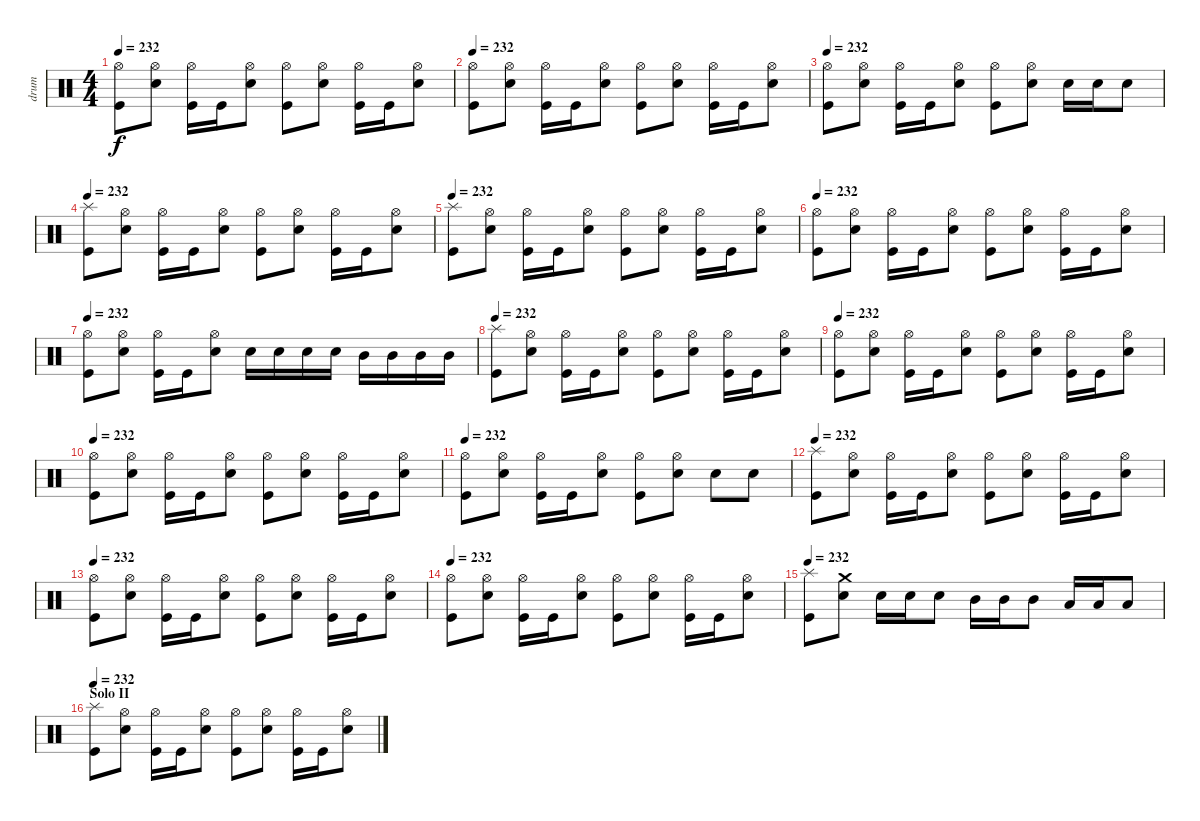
\track ("drum" "drum") {instrument percussion}
\staff {score}
\articulation defaults
\ts (4 4)
\tempo 232
\clef neutral
\ks c
("Kick (hit)" "Hi-Hat (open)").8{dy f} ("Electric Snare (hit)" "Hi-Hat (open)").8 ("Kick (hit)" "Hi-Hat (open)").16 "Kick (hit)".16 ("Electric Snare (hit)" "Hi-Hat (open)").8 ("Kick (hit)" "Hi-Hat (open)").8 ("Electric Snare (hit)" "Hi-Hat (open)").8 ("Kick (hit)" "Hi-Hat (open)").16 "Kick (hit)".16 ("Electric Snare (hit)" "Hi-Hat (open)").8 |
\tempo 232
("Kick (hit)" "Hi-Hat (open)").8 ("Electric Snare (hit)" "Hi-Hat (open)").8 ("Kick (hit)" "Hi-Hat (open)").16 "Kick (hit)".16 ("Electric Snare (hit)" "Hi-Hat (open)").8 ("Kick (hit)" "Hi-Hat (open)").8 ("Electric Snare (hit)" "Hi-Hat (open)").8 ("Kick (hit)" "Hi-Hat (open)").16 "Kick (hit)".16 ("Electric Snare (hit)" "Hi-Hat (open)").8 |
\tempo 232
("Kick (hit)" "Hi-Hat (open)").8 ("Electric Snare (hit)" "Hi-Hat (open)").8 ("Kick (hit)" "Hi-Hat (open)").16 "Kick (hit)".16 ("Electric Snare (hit)" "Hi-Hat (open)").8 ("Kick (hit)" "Hi-Hat (open)").8 ("Electric Snare (hit)" "Hi-Hat (open)").8 "Electric Snare (hit)".16 "Electric Snare (hit)".16 "Electric Snare (hit)".8 |
\tempo 232
("Kick (hit)" "Splash (hit)").8 ("Electric Snare (hit)" "Hi-Hat (open)").8 ("Kick (hit)" "Hi-Hat (open)").16 "Kick (hit)".16 ("Electric Snare (hit)" "Hi-Hat (open)").8 ("Kick (hit)" "Hi-Hat (open)").8 ("Electric Snare (hit)" "Hi-Hat (open)").8 ("Kick (hit)" "Hi-Hat (open)").16 "Kick (hit)".16 ("Electric Snare (hit)" "Hi-Hat (open)").8 |
\tempo 232
("Kick (hit)" "Splash (hit)").8 ("Electric Snare (hit)" "Hi-Hat (open)").8 ("Kick (hit)" "Hi-Hat (open)").16 "Kick (hit)".16 ("Electric Snare (hit)" "Hi-Hat (open)").8 ("Kick (hit)" "Hi-Hat (open)").8 ("Electric Snare (hit)" "Hi-Hat (open)").8 ("Kick (hit)" "Hi-Hat (open)").16 "Kick (hit)".16 ("Electric Snare (hit)" "Hi-Hat (open)").8 |
\tempo 232
("Kick (hit)" "Hi-Hat (open)").8 ("Electric Snare (hit)" "Hi-Hat (open)").8 ("Kick (hit)" "Hi-Hat (open)").16 "Kick (hit)".16 ("Electric Snare (hit)" "Hi-Hat (open)").8 ("Kick (hit)" "Hi-Hat (open)").8 ("Electric Snare (hit)" "Hi-Hat (open)").8 ("Kick (hit)" "Hi-Hat (open)").16 "Kick (hit)".16 ("Electric Snare (hit)" "Hi-Hat (open)").8 |
\tempo 232
("Kick (hit)" "Hi-Hat (open)").8 ("Electric Snare (hit)" "Hi-Hat (open)").8 ("Kick (hit)" "Hi-Hat (open)").16 "Kick (hit)".16 ("Electric Snare (hit)" "Hi-Hat (open)").8 "Electric Snare (hit)".16 "Electric Snare (hit)".16 "Electric Snare (hit)".16 "Electric Snare (hit)".16 "Mid Tom (hit)".16 "Mid Tom (hit)".16 "Mid Tom (hit)".16 "Mid Tom (hit)".16 |
\tempo 232
("Kick (hit)" "Splash (hit)").8 ("Electric Snare (hit)" "Hi-Hat (open)").8 ("Kick (hit)" "Hi-Hat (open)").16 "Kick (hit)".16 ("Electric Snare (hit)" "Hi-Hat (open)").8 ("Kick (hit)" "Hi-Hat (open)").8 ("Electric Snare (hit)" "Hi-Hat (open)").8 ("Kick (hit)" "Hi-Hat (open)").16 "Kick (hit)".16 ("Electric Snare (hit)" "Hi-Hat (open)").8 |
\tempo 232
("Kick (hit)" "Hi-Hat (open)").8 ("Electric Snare (hit)" "Hi-Hat (open)").8 ("Kick (hit)" "Hi-Hat (open)").16 "Kick (hit)".16 ("Electric Snare (hit)" "Hi-Hat (open)").8 ("Kick (hit)" "Hi-Hat (open)").8 ("Electric Snare (hit)" "Hi-Hat (open)").8 ("Kick (hit)" "Hi-Hat (open)").16 "Kick (hit)".16 ("Electric Snare (hit)" "Hi-Hat (open)").8 |
\tempo 232
("Kick (hit)" "Hi-Hat (open)").8 ("Electric Snare (hit)" "Hi-Hat (open)").8 ("Kick (hit)" "Hi-Hat (open)").16 "Kick (hit)".16 ("Electric Snare (hit)" "Hi-Hat (open)").8 ("Kick (hit)" "Hi-Hat (open)").8 ("Electric Snare (hit)" "Hi-Hat (open)").8 ("Kick (hit)" "Hi-Hat (open)").16 "Kick (hit)".16 ("Electric Snare (hit)" "Hi-Hat (open)").8 |
\tempo 232
("Kick (hit)" "Hi-Hat (open)").8 ("Electric Snare (hit)" "Hi-Hat (open)").8 ("Kick (hit)" "Hi-Hat (open)").16 "Kick (hit)".16 ("Electric Snare (hit)" "Hi-Hat (open)").8 ("Kick (hit)" "Hi-Hat (open)").8 ("Electric Snare (hit)" "Hi-Hat (open)").8 "Electric Snare (hit)".8 "Electric Snare (hit)".8 |
\tempo 232
("Kick (hit)" "Splash (hit)").8 ("Electric Snare (hit)" "Hi-Hat (open)").8 ("Kick (hit)" "Hi-Hat (open)").16 "Kick (hit)".16 ("Electric Snare (hit)" "Hi-Hat (open)").8 ("Kick (hit)" "Hi-Hat (open)").8 ("Electric Snare (hit)" "Hi-Hat (open)").8 ("Kick (hit)" "Hi-Hat (open)").16 "Kick (hit)".16 ("Electric Snare (hit)" "Hi-Hat (open)").8 |
\tempo 232
("Kick (hit)" "Hi-Hat (open)").8 ("Electric Snare (hit)" "Hi-Hat (open)").8 ("Kick (hit)" "Hi-Hat (open)").16 "Kick (hit)".16 ("Electric Snare (hit)" "Hi-Hat (open)").8 ("Kick (hit)" "Hi-Hat (open)").8 ("Electric Snare (hit)" "Hi-Hat (open)").8 ("Kick (hit)" "Hi-Hat (open)").16 "Kick (hit)".16 ("Electric Snare (hit)" "Hi-Hat (open)").8 |
\tempo 232
("Kick (hit)" "Hi-Hat (open)").8 ("Electric Snare (hit)" "Hi-Hat (open)").8 ("Kick (hit)" "Hi-Hat (open)").16 "Kick (hit)".16 ("Electric Snare (hit)" "Hi-Hat (open)").8 ("Kick (hit)" "Hi-Hat (open)").8 ("Electric Snare (hit)" "Hi-Hat (open)").8 ("Kick (hit)" "Hi-Hat (open)").16 "Kick (hit)".16 ("Electric Snare (hit)" "Hi-Hat (open)").8 |
\tempo 232
("Kick (hit)" "Splash (hit)").8 ("Electric Snare (hit)" "Crash medium (hit)").8 "Electric Snare (hit)".16 "Electric Snare (hit)".16 "Electric Snare (hit)".8 "Mid Tom (hit)".16 "Mid Tom (hit)".16 "Mid Tom (hit)".8 "Low Tom (hit)".16 "Low Tom (hit)".16 "Low Tom (hit)".8 |
\section ("" "Solo II")
\tempo 232
("Kick (hit)" "Splash (hit)").8 ("Electric Snare (hit)" "Hi-Hat (open)").8 ("Kick (hit)" "Hi-Hat (open)").16 "Kick (hit)".16 ("Electric Snare (hit)" "Hi-Hat (open)").8 ("Kick (hit)" "Hi-Hat (open)").8 ("Electric Snare (hit)" "Hi-Hat (open)").8 ("Kick (hit)" "Hi-Hat (open)").16 "Kick (hit)".16 ("Electric Snare (hit)" "Hi-Hat (open)").8
